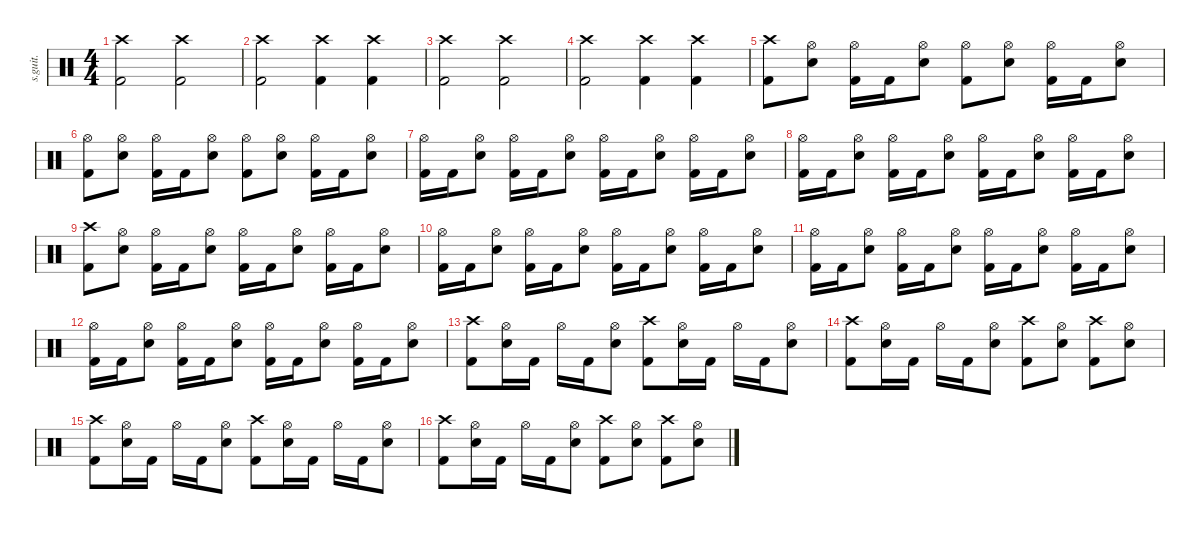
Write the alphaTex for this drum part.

\defaultSystemsLayout 4
\hideDynamics
\bracketExtendMode nobrackets
\track ("" "s.guit.") {instrument percussion}
\staff {score}
\articulation defaults
\ts (4 4)
\beaming (8 2 2 2 2)
\tempo (160 hide)
\clef neutral
\ks c
("Crash high (hit)" "Kick (hit) 2").2{dy f} ("Crash high (hit)" "Kick (hit) 2").2 |
("Crash high (hit)" "Kick (hit) 2").2 ("Crash high (hit)" "Kick (hit) 2").4 ("Crash high (hit)" "Kick (hit) 2").4 |
("Crash high (hit)" "Kick (hit) 2").2 ("Crash high (hit)" "Kick (hit) 2").2 |
("Crash high (hit)" "Kick (hit) 2").2 ("Crash high (hit)" "Kick (hit) 2").4 ("Crash high (hit)" "Kick (hit) 2").4 |
("Crash high (hit)" "Kick (hit) 2").8 ("Hi-Hat (open)" "Snare (hit) 2").8 ("Hi-Hat (open)" "Kick (hit) 2").16 "Kick (hit) 2".16 ("Hi-Hat (open)" "Snare (hit) 2").8 ("Hi-Hat (open)" "Kick (hit) 2").8 ("Hi-Hat (open)" "Snare (hit) 2").8 ("Hi-Hat (open)" "Kick (hit) 2").16 "Kick (hit) 2".16 ("Hi-Hat (open)" "Snare (hit) 2").8 |
("Hi-Hat (open)" "Kick (hit) 2").8 ("Hi-Hat (open)" "Snare (hit) 2").8 ("Hi-Hat (open)" "Kick (hit) 2").16 "Kick (hit) 2".16 ("Hi-Hat (open)" "Snare (hit) 2").8 ("Hi-Hat (open)" "Kick (hit) 2").8 ("Hi-Hat (open)" "Snare (hit) 2").8 ("Hi-Hat (open)" "Kick (hit) 2").16 "Kick (hit) 2".16 ("Hi-Hat (open)" "Snare (hit) 2").8 |
("Hi-Hat (open)" "Kick (hit) 2").16 "Kick (hit) 2".16 ("Hi-Hat (open)" "Snare (hit) 2").8 ("Hi-Hat (open)" "Kick (hit) 2").16 "Kick (hit) 2".16 ("Hi-Hat (open)" "Snare (hit) 2").8 ("Hi-Hat (open)" "Kick (hit) 2").16 "Kick (hit) 2".16 ("Hi-Hat (open)" "Snare (hit) 2").8 ("Hi-Hat (open)" "Kick (hit) 2").16 "Kick (hit) 2".16 ("Hi-Hat (open)" "Snare (hit) 2").8 |
("Hi-Hat (open)" "Kick (hit) 2").16 "Kick (hit) 2".16 ("Hi-Hat (open)" "Snare (hit) 2").8 ("Hi-Hat (open)" "Kick (hit) 2").16 "Kick (hit) 2".16 ("Hi-Hat (open)" "Snare (hit) 2").8 ("Hi-Hat (open)" "Kick (hit) 2").16 "Kick (hit) 2".16 ("Hi-Hat (open)" "Snare (hit) 2").8 ("Hi-Hat (open)" "Kick (hit) 2").16 "Kick (hit) 2".16 ("Hi-Hat (open)" "Snare (hit) 2").8 |
("Crash high (hit)" "Kick (hit) 2").8 ("Hi-Hat (open)" "Snare (hit) 2").8 ("Hi-Hat (open)" "Kick (hit) 2").16 "Kick (hit) 2".16 ("Hi-Hat (open)" "Snare (hit) 2").8 ("Hi-Hat (open)" "Kick (hit) 2").16 "Kick (hit) 2".16 ("Hi-Hat (open)" "Snare (hit) 2").8 ("Hi-Hat (open)" "Kick (hit) 2").16 "Kick (hit) 2".16 ("Hi-Hat (open)" "Snare (hit) 2").8 |
("Hi-Hat (open)" "Kick (hit) 2").16 "Kick (hit) 2".16 ("Hi-Hat (open)" "Snare (hit) 2").8 ("Hi-Hat (open)" "Kick (hit) 2").16 "Kick (hit) 2".16 ("Hi-Hat (open)" "Snare (hit) 2").8 ("Hi-Hat (open)" "Kick (hit) 2").16 "Kick (hit) 2".16 ("Hi-Hat (open)" "Snare (hit) 2").8 ("Hi-Hat (open)" "Kick (hit) 2").16 "Kick (hit) 2".16 ("Hi-Hat (open)" "Snare (hit) 2").8 |
("Hi-Hat (open)" "Kick (hit) 2").16 "Kick (hit) 2".16 ("Hi-Hat (open)" "Snare (hit) 2").8 ("Hi-Hat (open)" "Kick (hit) 2").16 "Kick (hit) 2".16 ("Hi-Hat (open)" "Snare (hit) 2").8 ("Hi-Hat (open)" "Kick (hit) 2").16 "Kick (hit) 2".16 ("Hi-Hat (open)" "Snare (hit) 2").8 ("Hi-Hat (open)" "Kick (hit) 2").16 "Kick (hit) 2".16 ("Hi-Hat (open)" "Snare (hit) 2").8 |
("Hi-Hat (open)" "Kick (hit) 2").16 "Kick (hit) 2".16 ("Hi-Hat (open)" "Snare (hit) 2").8 ("Hi-Hat (open)" "Kick (hit) 2").16 "Kick (hit) 2".16 ("Hi-Hat (open)" "Snare (hit) 2").8 ("Hi-Hat (open)" "Kick (hit) 2").16 "Kick (hit) 2".16 ("Hi-Hat (open)" "Snare (hit) 2").8 ("Hi-Hat (open)" "Kick (hit) 2").16 "Kick (hit) 2".16 ("Hi-Hat (open)" "Snare (hit) 2").8 |
("Crash high (hit)" "Kick (hit) 2").8 ("Hi-Hat (open)" "Snare (hit) 2").16 "Kick (hit) 2".16 "Hi-Hat (open)".16 "Kick (hit) 2".16 ("Hi-Hat (open)" "Snare (hit) 2").8 ("Crash high (hit)" "Kick (hit) 2").8 ("Hi-Hat (open)" "Snare (hit) 2").16 "Kick (hit) 2".16 "Hi-Hat (open)".16 "Kick (hit) 2".16 ("Hi-Hat (open)" "Snare (hit) 2").8 |
("Crash high (hit)" "Kick (hit) 2").8 ("Hi-Hat (open)" "Snare (hit) 2").16 "Kick (hit) 2".16 "Hi-Hat (open)".16 "Kick (hit) 2".16 ("Hi-Hat (open)" "Snare (hit) 2").8 ("Crash high (hit)" "Kick (hit) 2").8 ("Hi-Hat (open)" "Snare (hit) 2").8 ("Crash high (hit)" "Kick (hit) 2").8 ("Hi-Hat (open)" "Snare (hit) 2").8 |
("Crash high (hit)" "Kick (hit) 2").8 ("Hi-Hat (open)" "Snare (hit) 2").16 "Kick (hit) 2".16 "Hi-Hat (open)".16 "Kick (hit) 2".16 ("Hi-Hat (open)" "Snare (hit) 2").8 ("Crash high (hit)" "Kick (hit) 2").8 ("Hi-Hat (open)" "Snare (hit) 2").16 "Kick (hit) 2".16 "Hi-Hat (open)".16 "Kick (hit) 2".16 ("Hi-Hat (open)" "Snare (hit) 2").8 |
("Crash high (hit)" "Kick (hit) 2").8 ("Hi-Hat (open)" "Snare (hit) 2").16 "Kick (hit) 2".16 "Hi-Hat (open)".16 "Kick (hit) 2".16 ("Hi-Hat (open)" "Snare (hit) 2").8 ("Crash high (hit)" "Kick (hit) 2").8 ("Hi-Hat (open)" "Snare (hit) 2").8 ("Crash high (hit)" "Kick (hit) 2").8 ("Hi-Hat (open)" "Snare (hit) 2").8
